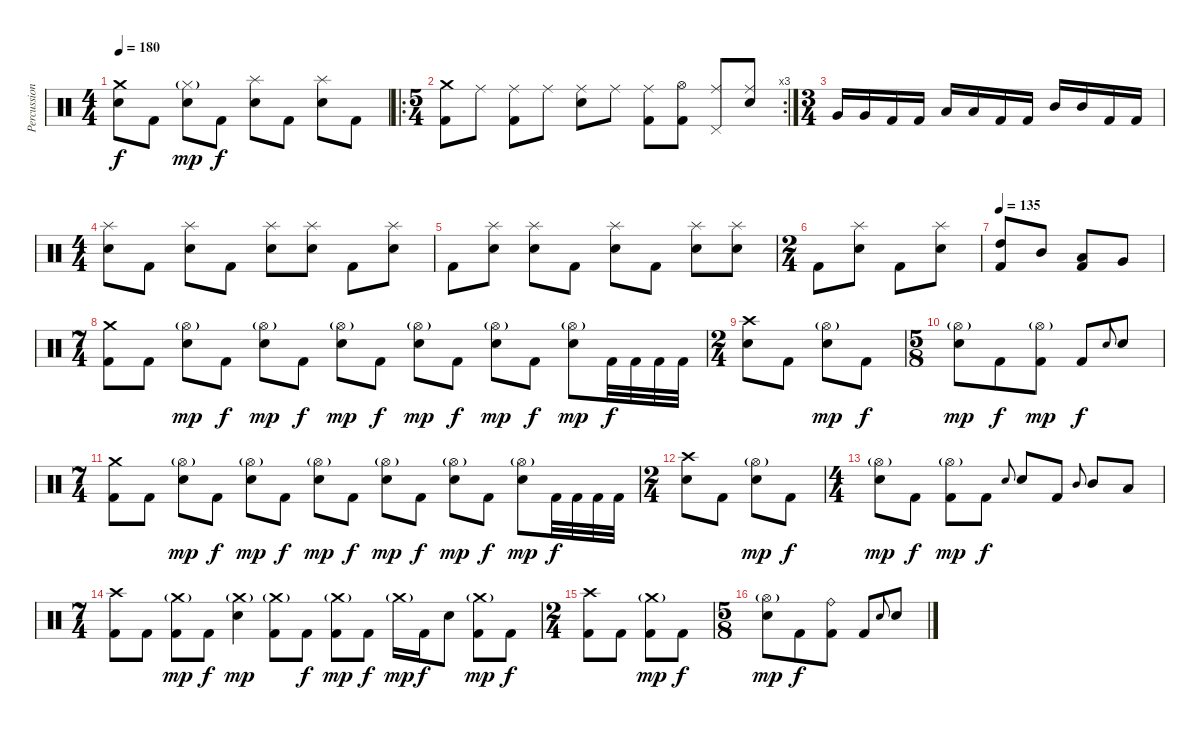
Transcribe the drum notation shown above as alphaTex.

\track ("Percussion" "Percussion") {instrument percussion}
\staff {score}
\articulation defaults
\ts (4 4)
\tempo 180
\clef neutral
\ks c
("Crash medium (hit)" "Electric Snare (hit)").8{dy f} "Kick (hit) 2".8 ("Hi-Hat (closed)"{g} "Electric Snare (hit)").8{dy mp} "Kick (hit) 2".8{dy f} ("Splash (hit)" "Electric Snare (hit)").8 "Kick (hit) 2".8 ("Splash (hit)" "Electric Snare (hit)").8 "Kick (hit) 2".8 |
\ro
\rc 3
\ts (5 4)
("Crash medium (hit)" "Kick (hit) 2").8 "Ride (middle)".8 ("Ride (middle)" "Kick (hit) 2").8 "Ride (middle)".8 ("Ride (middle)" "Electric Snare (hit)").8 "Ride (middle)".8 ("Ride (middle)" "Kick (hit) 2").8 ("Hi-Hat (open)" "Kick (hit) 2").8 ("Ride (middle)" "Pedal Hi-Hat (hit)").8 ("Ride (middle)" "Electric Snare (hit)").8 |
\ts (3 4)
"Very Low Tom (hit)".16 "Very Low Tom (hit)".16 "Kick (hit) 2".16 "Kick (hit) 2".16 "Low Tom (hit)".16 "Low Tom (hit)".16 "Kick (hit) 2".16 "Kick (hit) 2".16 "Mid Tom (hit)".16 "Mid Tom (hit)".16 "Kick (hit) 2".16 "Kick (hit) 2".16 |
\ts (4 4)
("Splash (hit)" "Electric Snare (hit)").8 "Kick (hit) 2".8 ("Splash (hit)" "Electric Snare (hit)").8 "Kick (hit) 2".8 ("Splash (hit)" "Electric Snare (hit)").8 ("Splash (hit)" "Electric Snare (hit)").8 "Kick (hit) 2".8 ("Splash (hit)" "Electric Snare (hit)").8 |
"Kick (hit) 2".8 ("Splash (hit)" "Electric Snare (hit)").8 ("Splash (hit)" "Electric Snare (hit)").8 "Kick (hit) 2".8 ("Splash (hit)" "Electric Snare (hit)").8 "Kick (hit) 2".8 ("Splash (hit)" "Electric Snare (hit)").8 ("Splash (hit)" "Electric Snare (hit)").8 |
\ts (2 4)
"Kick (hit) 2".8 ("Splash (hit)" "Electric Snare (hit)").8 "Kick (hit) 2".8 ("Splash (hit)" "Electric Snare (hit)").8 |
\tempo 135
("High Tom (hit)" "Kick (hit) 2").8 "Mid Tom (hit)".8 ("Low Tom (hit)" "Kick (hit) 2").8 "Very Low Tom (hit)".8 |
\ts (7 4)
("Crash medium (hit)" "Kick (hit) 2").8 "Kick (hit) 2".8 ("Hi-Hat (open)"{g} "Electric Snare (hit)").8{dy mp} "Kick (hit) 2".8{dy f} ("Hi-Hat (open)"{g} "Electric Snare (hit)").8{dy mp} "Kick (hit) 2".8{dy f} ("Hi-Hat (open)"{g} "Electric Snare (hit)").8{dy mp} "Kick (hit) 2".8{dy f} ("Hi-Hat (open)"{g} "Electric Snare (hit)").8{dy mp} "Kick (hit) 2".8{dy f} ("Hi-Hat (open)"{g} "Electric Snare (hit)").8{dy mp} "Kick (hit) 2".8{dy f} ("Hi-Hat (open)"{g} "Electric Snare (hit)").8{dy mp} "Kick (hit) 2".32{dy f} "Kick (hit) 2".32 "Kick (hit) 2".32 "Kick (hit) 2".32 |
\ts (2 4)
("Crash high (hit)" "Electric Snare (hit)").8 "Kick (hit) 2".8 ("Hi-Hat (open)"{g} "Electric Snare (hit)").8{dy mp} "Kick (hit) 2".8{dy f} |
\ts (5 8)
("Hi-Hat (open)"{g} "Electric Snare (hit)").8{dy mp} "Kick (hit) 2".8{dy f} ("Hi-Hat (open)"{g} "Kick (hit) 2").8{dy mp} "Kick (hit) 2".8{dy f} "Electric Snare (hit)".8{gr onbeat} "Electric Snare (hit)".8 |
\ts (7 4)
("Crash medium (hit)" "Kick (hit) 2").8 "Kick (hit) 2".8 ("Hi-Hat (open)"{g} "Electric Snare (hit)").8{dy mp} "Kick (hit) 2".8{dy f} ("Hi-Hat (open)"{g} "Electric Snare (hit)").8{dy mp} "Kick (hit) 2".8{dy f} ("Hi-Hat (open)"{g} "Electric Snare (hit)").8{dy mp} "Kick (hit) 2".8{dy f} ("Hi-Hat (open)"{g} "Electric Snare (hit)").8{dy mp} "Kick (hit) 2".8{dy f} ("Hi-Hat (open)"{g} "Electric Snare (hit)").8{dy mp} "Kick (hit) 2".8{dy f} ("Hi-Hat (open)"{g} "Electric Snare (hit)").8{dy mp} "Kick (hit) 2".32{dy f} "Kick (hit) 2".32 "Kick (hit) 2".32 "Kick (hit) 2".32 |
\ts (2 4)
("Crash high (hit)" "Electric Snare (hit)").8 "Kick (hit) 2".8 ("Hi-Hat (open)"{g} "Electric Snare (hit)").8{dy mp} "Kick (hit) 2".8{dy f} |
\ts (4 4)
("Hi-Hat (open)"{g} "Electric Snare (hit)").8{dy mp} "Kick (hit) 2".8{dy f} ("Hi-Hat (open)"{g} "Kick (hit) 2").8{dy mp} "Kick (hit) 2".8{dy f} "Electric Snare (hit)".8{gr onbeat} "Electric Snare (hit)".8 "Kick (hit) 2".8 "Mid Tom (hit)".8{gr onbeat} "Mid Tom (hit)".8 "Low Tom (hit)".8 |
\ts (7 4)
("Crash high (hit)" "Kick (hit) 2").8 "Kick (hit) 2".8 ("Crash medium (hit)"{g} "Kick (hit) 2").8{dy mp} "Kick (hit) 2".8{dy f} ("Crash medium (hit)"{g} "Electric Snare (hit)").4{dy mp} ("Crash medium (hit)"{g} "Kick (hit) 2").8 "Kick (hit) 2".8{dy f} ("Crash medium (hit)"{g} "Kick (hit) 2").8{dy mp} "Kick (hit) 2".8{dy f} "Crash medium (hit)"{g}.16{dy mp} "Kick (hit) 2".16{dy f} "Electric Snare (hit)".8 ("Crash medium (hit)"{g} "Kick (hit) 2").8{dy mp} "Kick (hit) 2".8{dy f} |
\ts (2 4)
("Crash high (hit)" "Kick (hit) 2").8 "Kick (hit) 2".8 ("Crash medium (hit)"{g} "Kick (hit) 2").8{dy mp} "Kick (hit) 2".8{dy f} |
\ts (5 8)
("Hi-Hat (open)"{g} "Electric Snare (hit)").8{dy mp} "Kick (hit) 2".8{dy f} ("Ride (bell)" "Kick (hit) 2").8 "Kick (hit) 2".8 "Electric Snare (hit)".8{gr onbeat} "Electric Snare (hit)".8
